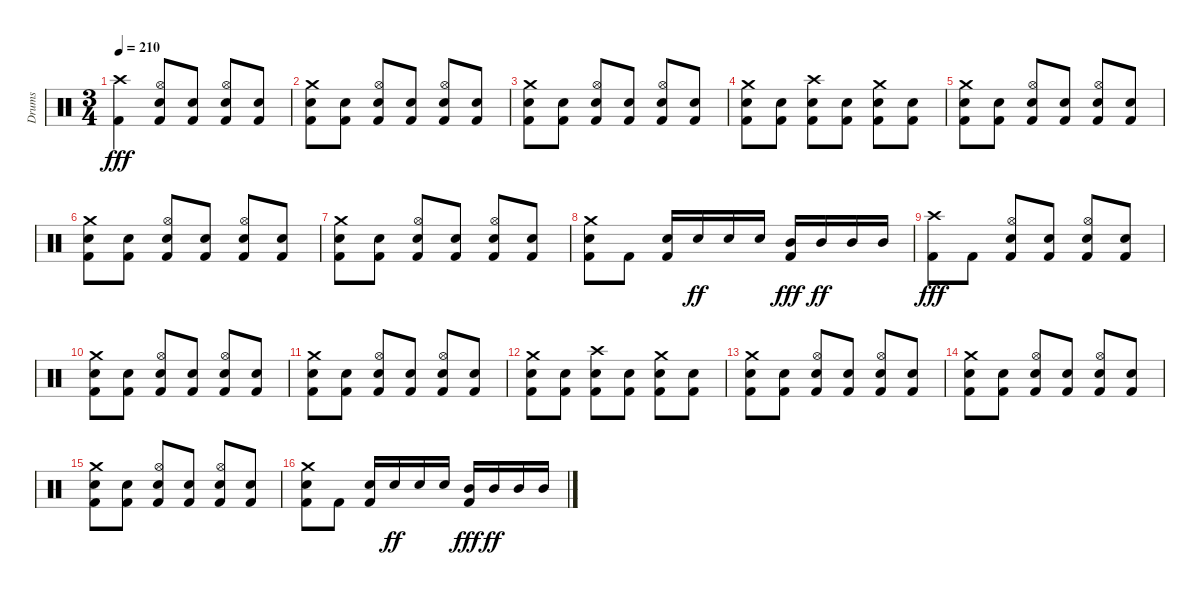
\track ("Drums" "Drums") {instrument percussion}
\staff {score}
\articulation defaults
\ts (3 4)
\tempo 210
\clef neutral
\ks c
("Crash high (hit)" "Kick (hit) 2").4{dy fff} ("Hi-Hat (open)" "Snare (hit) 2" "Kick (hit) 2").8 ("Snare (hit) 2" "Kick (hit) 2").8 ("Hi-Hat (open)" "Snare (hit) 2" "Kick (hit) 2").8 ("Snare (hit) 2" "Kick (hit) 2").8 |
("Crash medium (hit)" "Snare (hit) 2" "Kick (hit) 2").8 ("Snare (hit) 2" "Kick (hit) 2").8 ("Hi-Hat (open)" "Snare (hit) 2" "Kick (hit) 2").8 ("Snare (hit) 2" "Kick (hit) 2").8 ("Hi-Hat (open)" "Snare (hit) 2" "Kick (hit) 2").8 ("Snare (hit) 2" "Kick (hit) 2").8 |
("Crash medium (hit)" "Snare (hit) 2" "Kick (hit) 2").8 ("Snare (hit) 2" "Kick (hit) 2").8 ("Hi-Hat (open)" "Snare (hit) 2" "Kick (hit) 2").8 ("Snare (hit) 2" "Kick (hit) 2").8 ("Hi-Hat (open)" "Snare (hit) 2" "Kick (hit) 2").8 ("Snare (hit) 2" "Kick (hit) 2").8 |
("Crash medium (hit)" "Snare (hit) 2" "Kick (hit) 2").8 ("Snare (hit) 2" "Kick (hit) 2").8 ("Crash high (hit)" "Snare (hit) 2" "Kick (hit) 2").8 ("Snare (hit) 2" "Kick (hit) 2").8 ("Crash medium (hit)" "Snare (hit) 2" "Kick (hit) 2").8 ("Snare (hit) 2" "Kick (hit) 2").8 |
("Crash medium (hit)" "Snare (hit) 2" "Kick (hit) 2").8 ("Snare (hit) 2" "Kick (hit) 2").8 ("Hi-Hat (open)" "Snare (hit) 2" "Kick (hit) 2").8 ("Snare (hit) 2" "Kick (hit) 2").8 ("Hi-Hat (open)" "Snare (hit) 2" "Kick (hit) 2").8 ("Snare (hit) 2" "Kick (hit) 2").8 |
("Crash medium (hit)" "Snare (hit) 2" "Kick (hit) 2").8 ("Snare (hit) 2" "Kick (hit) 2").8 ("Hi-Hat (open)" "Snare (hit) 2" "Kick (hit) 2").8 ("Snare (hit) 2" "Kick (hit) 2").8 ("Hi-Hat (open)" "Snare (hit) 2" "Kick (hit) 2").8 ("Snare (hit) 2" "Kick (hit) 2").8 |
("Crash medium (hit)" "Snare (hit) 2" "Kick (hit) 2").8 ("Snare (hit) 2" "Kick (hit) 2").8 ("Hi-Hat (open)" "Snare (hit) 2" "Kick (hit) 2").8 ("Snare (hit) 2" "Kick (hit) 2").8 ("Hi-Hat (open)" "Snare (hit) 2" "Kick (hit) 2").8 ("Snare (hit) 2" "Kick (hit) 2").8 |
("Crash medium (hit)" "Snare (hit) 2" "Kick (hit) 2").8 "Kick (hit) 2".8 ("Snare (hit) 2" "Kick (hit) 2").16 "Snare (hit) 2".16{dy ff} "Snare (hit) 2".16 "Snare (hit) 2".16 ("Mid Tom (hit)" "Kick (hit) 2").16{dy fff} "Mid Tom (hit)".16{dy ff} "Mid Tom (hit)".16 "Mid Tom (hit)".16 |
("Crash high (hit)" "Kick (hit) 2").8{dy fff} "Kick (hit) 2".8 ("Hi-Hat (open)" "Snare (hit) 2" "Kick (hit) 2").8 ("Snare (hit) 2" "Kick (hit) 2").8 ("Hi-Hat (open)" "Snare (hit) 2" "Kick (hit) 2").8 ("Snare (hit) 2" "Kick (hit) 2").8 |
("Crash medium (hit)" "Snare (hit) 2" "Kick (hit) 2").8 ("Snare (hit) 2" "Kick (hit) 2").8 ("Hi-Hat (open)" "Snare (hit) 2" "Kick (hit) 2").8 ("Snare (hit) 2" "Kick (hit) 2").8 ("Hi-Hat (open)" "Snare (hit) 2" "Kick (hit) 2").8 ("Snare (hit) 2" "Kick (hit) 2").8 |
("Crash medium (hit)" "Snare (hit) 2" "Kick (hit) 2").8 ("Snare (hit) 2" "Kick (hit) 2").8 ("Hi-Hat (open)" "Snare (hit) 2" "Kick (hit) 2").8 ("Snare (hit) 2" "Kick (hit) 2").8 ("Hi-Hat (open)" "Snare (hit) 2" "Kick (hit) 2").8 ("Snare (hit) 2" "Kick (hit) 2").8 |
("Crash medium (hit)" "Snare (hit) 2" "Kick (hit) 2").8 ("Snare (hit) 2" "Kick (hit) 2").8 ("Crash high (hit)" "Snare (hit) 2" "Kick (hit) 2").8 ("Snare (hit) 2" "Kick (hit) 2").8 ("Crash medium (hit)" "Snare (hit) 2" "Kick (hit) 2").8 ("Snare (hit) 2" "Kick (hit) 2").8 |
("Crash medium (hit)" "Snare (hit) 2" "Kick (hit) 2").8 ("Snare (hit) 2" "Kick (hit) 2").8 ("Hi-Hat (open)" "Snare (hit) 2" "Kick (hit) 2").8 ("Snare (hit) 2" "Kick (hit) 2").8 ("Hi-Hat (open)" "Snare (hit) 2" "Kick (hit) 2").8 ("Snare (hit) 2" "Kick (hit) 2").8 |
("Crash medium (hit)" "Snare (hit) 2" "Kick (hit) 2").8 ("Snare (hit) 2" "Kick (hit) 2").8 ("Hi-Hat (open)" "Snare (hit) 2" "Kick (hit) 2").8 ("Snare (hit) 2" "Kick (hit) 2").8 ("Hi-Hat (open)" "Snare (hit) 2" "Kick (hit) 2").8 ("Snare (hit) 2" "Kick (hit) 2").8 |
("Crash medium (hit)" "Snare (hit) 2" "Kick (hit) 2").8 ("Snare (hit) 2" "Kick (hit) 2").8 ("Hi-Hat (open)" "Snare (hit) 2" "Kick (hit) 2").8 ("Snare (hit) 2" "Kick (hit) 2").8 ("Hi-Hat (open)" "Snare (hit) 2" "Kick (hit) 2").8 ("Snare (hit) 2" "Kick (hit) 2").8 |
("Crash medium (hit)" "Snare (hit) 2" "Kick (hit) 2").8 "Kick (hit) 2".8 ("Snare (hit) 2" "Kick (hit) 2").16 "Snare (hit) 2".16{dy ff} "Snare (hit) 2".16 "Snare (hit) 2".16 ("Mid Tom (hit)" "Kick (hit) 2").16{dy fff} "Mid Tom (hit)".16{dy ff} "Mid Tom (hit)".16 "Mid Tom (hit)".16
